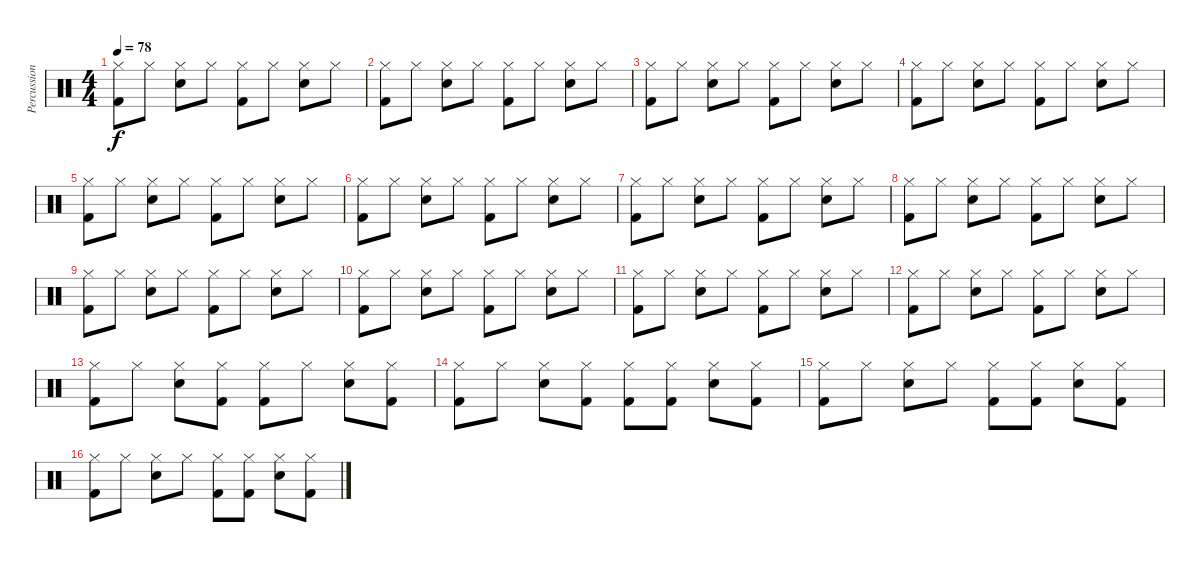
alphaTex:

\track ("Percussions" "Percussion") {instrument percussion}
\staff {score}
\articulation defaults
\ts (4 4)
\tempo 78
\clef neutral
\ks c
("Hi-Hat (closed)" "Kick (hit) 2").8{dy f} "Hi-Hat (closed)".8 ("Hi-Hat (closed)" "Electric Snare (hit)").8 "Hi-Hat (closed)".8 ("Hi-Hat (closed)" "Kick (hit) 2").8 "Hi-Hat (closed)".8 ("Hi-Hat (closed)" "Electric Snare (hit)").8 "Hi-Hat (closed)".8 |
("Hi-Hat (closed)" "Kick (hit) 2").8 "Hi-Hat (closed)".8 ("Hi-Hat (closed)" "Electric Snare (hit)").8 "Hi-Hat (closed)".8 ("Hi-Hat (closed)" "Kick (hit) 2").8 "Hi-Hat (closed)".8 ("Hi-Hat (closed)" "Electric Snare (hit)").8 "Hi-Hat (closed)".8 |
("Hi-Hat (closed)" "Kick (hit) 2").8 "Hi-Hat (closed)".8 ("Hi-Hat (closed)" "Electric Snare (hit)").8 "Hi-Hat (closed)".8 ("Hi-Hat (closed)" "Kick (hit) 2").8 "Hi-Hat (closed)".8 ("Hi-Hat (closed)" "Electric Snare (hit)").8 "Hi-Hat (closed)".8 |
("Hi-Hat (closed)" "Kick (hit) 2").8 "Hi-Hat (closed)".8 ("Hi-Hat (closed)" "Electric Snare (hit)").8 "Hi-Hat (closed)".8 ("Hi-Hat (closed)" "Kick (hit) 2").8 "Hi-Hat (closed)".8 ("Hi-Hat (closed)" "Electric Snare (hit)").8 "Hi-Hat (closed)".8 |
("Hi-Hat (closed)" "Kick (hit) 2").8 "Hi-Hat (closed)".8 ("Hi-Hat (closed)" "Electric Snare (hit)").8 "Hi-Hat (closed)".8 ("Hi-Hat (closed)" "Kick (hit) 2").8 "Hi-Hat (closed)".8 ("Hi-Hat (closed)" "Electric Snare (hit)").8 "Hi-Hat (closed)".8 |
("Hi-Hat (closed)" "Kick (hit) 2").8 "Hi-Hat (closed)".8 ("Hi-Hat (closed)" "Electric Snare (hit)").8 "Hi-Hat (closed)".8 ("Hi-Hat (closed)" "Kick (hit) 2").8 "Hi-Hat (closed)".8 ("Hi-Hat (closed)" "Electric Snare (hit)").8 "Hi-Hat (closed)".8 |
("Hi-Hat (closed)" "Kick (hit) 2").8 "Hi-Hat (closed)".8 ("Hi-Hat (closed)" "Electric Snare (hit)").8 "Hi-Hat (closed)".8 ("Hi-Hat (closed)" "Kick (hit) 2").8 "Hi-Hat (closed)".8 ("Hi-Hat (closed)" "Electric Snare (hit)").8 "Hi-Hat (closed)".8 |
("Hi-Hat (closed)" "Kick (hit) 2").8 "Hi-Hat (closed)".8 ("Hi-Hat (closed)" "Electric Snare (hit)").8 "Hi-Hat (closed)".8 ("Hi-Hat (closed)" "Kick (hit) 2").8 "Hi-Hat (closed)".8 ("Hi-Hat (closed)" "Electric Snare (hit)").8 "Hi-Hat (closed)".8 |
("Hi-Hat (closed)" "Kick (hit) 2").8 "Hi-Hat (closed)".8 ("Hi-Hat (closed)" "Electric Snare (hit)").8 "Hi-Hat (closed)".8 ("Hi-Hat (closed)" "Kick (hit) 2").8 "Hi-Hat (closed)".8 ("Hi-Hat (closed)" "Electric Snare (hit)").8 "Hi-Hat (closed)".8 |
("Hi-Hat (closed)" "Kick (hit) 2").8 "Hi-Hat (closed)".8 ("Hi-Hat (closed)" "Electric Snare (hit)").8 "Hi-Hat (closed)".8 ("Hi-Hat (closed)" "Kick (hit) 2").8 "Hi-Hat (closed)".8 ("Hi-Hat (closed)" "Electric Snare (hit)").8 "Hi-Hat (closed)".8 |
("Hi-Hat (closed)" "Kick (hit) 2").8 "Hi-Hat (closed)".8 ("Hi-Hat (closed)" "Electric Snare (hit)").8 "Hi-Hat (closed)".8 ("Hi-Hat (closed)" "Kick (hit) 2").8 "Hi-Hat (closed)".8 ("Hi-Hat (closed)" "Electric Snare (hit)").8 "Hi-Hat (closed)".8 |
("Hi-Hat (closed)" "Kick (hit) 2").8 "Hi-Hat (closed)".8 ("Hi-Hat (closed)" "Electric Snare (hit)").8 "Hi-Hat (closed)".8 ("Hi-Hat (closed)" "Kick (hit) 2").8 "Hi-Hat (closed)".8 ("Hi-Hat (closed)" "Electric Snare (hit)").8 "Hi-Hat (closed)".8 |
("Hi-Hat (closed)" "Kick (hit) 2").8 "Hi-Hat (closed)".8 ("Hi-Hat (closed)" "Electric Snare (hit)").8 ("Hi-Hat (closed)" "Kick (hit) 2").8 ("Hi-Hat (closed)" "Kick (hit) 2").8 "Hi-Hat (closed)".8 ("Hi-Hat (closed)" "Electric Snare (hit)").8 ("Hi-Hat (closed)" "Kick (hit) 2").8 |
("Hi-Hat (closed)" "Kick (hit) 2").8 "Hi-Hat (closed)".8 ("Hi-Hat (closed)" "Electric Snare (hit)").8 ("Hi-Hat (closed)" "Kick (hit) 2").8 ("Hi-Hat (closed)" "Kick (hit) 2").8 ("Hi-Hat (closed)" "Kick (hit) 2").8 ("Hi-Hat (closed)" "Electric Snare (hit)").8 ("Hi-Hat (closed)" "Kick (hit) 2").8 |
("Hi-Hat (closed)" "Kick (hit) 2").8 "Hi-Hat (closed)".8 ("Hi-Hat (closed)" "Electric Snare (hit)").8 "Hi-Hat (closed)".8 ("Hi-Hat (closed)" "Kick (hit) 2").8 ("Hi-Hat (closed)" "Kick (hit) 2").8 ("Hi-Hat (closed)" "Electric Snare (hit)").8 ("Hi-Hat (closed)" "Kick (hit) 2").8 |
("Hi-Hat (closed)" "Kick (hit) 2").8 "Hi-Hat (closed)".8 ("Hi-Hat (closed)" "Electric Snare (hit)").8 "Hi-Hat (closed)".8 ("Hi-Hat (closed)" "Kick (hit) 2").8 ("Hi-Hat (closed)" "Kick (hit) 2").8 ("Hi-Hat (closed)" "Electric Snare (hit)").8 ("Hi-Hat (closed)" "Kick (hit) 2").8
